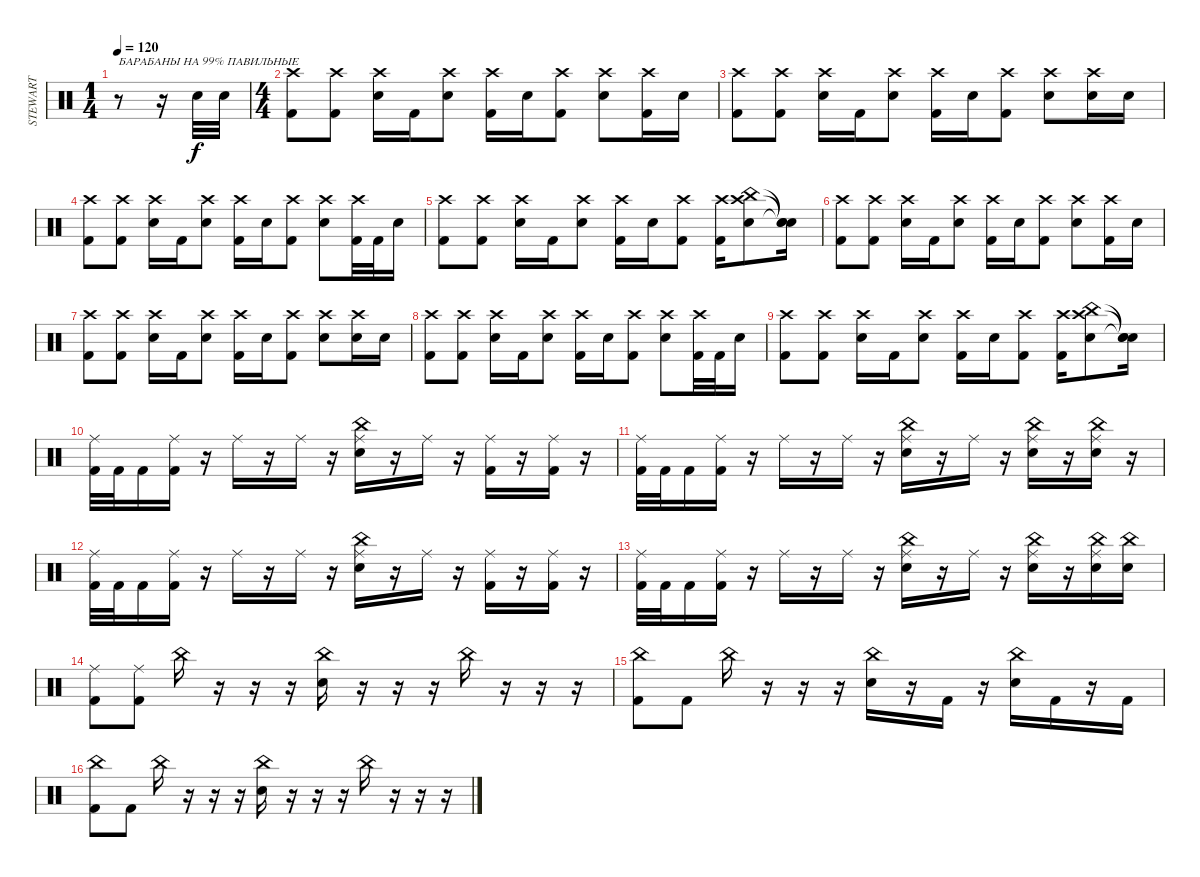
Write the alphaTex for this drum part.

\track ("STEWART" "STEWART") {instrument percussion}
\staff {score}
\articulation defaults
\ts (1 4)
\tempo 120
\clef neutral
\ks c
r.8{txt "БАРАБАНЫ НА 99% ПАВИЛЬНЫЕ" dy f} r.16 "Snare (hit) 2".32 "Snare (hit) 2".32 |
\ts (4 4)
("Crash high (hit)" "Kick (hit) 2").8 ("Crash high (hit)" "Kick (hit) 2").8 ("Crash high (hit)" "Snare (hit) 2").16 "Kick (hit) 2".16 ("Crash high (hit)" "Snare (hit) 2").8 ("Crash high (hit)" "Kick (hit) 2").16 "Snare (hit) 2".16 ("Crash high (hit)" "Kick (hit) 2").8 ("Crash high (hit)" "Snare (hit) 2").8 ("Crash high (hit)" "Kick (hit) 2").16 "Snare (hit) 2".16 |
("Crash high (hit)" "Kick (hit) 2").8 ("Crash high (hit)" "Kick (hit) 2").8 ("Crash high (hit)" "Snare (hit) 2").16 "Kick (hit) 2".16 ("Crash high (hit)" "Snare (hit) 2").8 ("Crash high (hit)" "Kick (hit) 2").16 "Snare (hit) 2".16 ("Crash high (hit)" "Kick (hit) 2").8 ("Crash high (hit)" "Snare (hit) 2").8 ("Crash high (hit)" "Snare (hit) 2").16 "Snare (hit) 2".16 |
("Crash high (hit)" "Kick (hit) 2").8 ("Crash high (hit)" "Kick (hit) 2").8 ("Crash high (hit)" "Snare (hit) 2").16 "Kick (hit) 2".16 ("Crash high (hit)" "Snare (hit) 2").8 ("Crash high (hit)" "Kick (hit) 2").16 "Snare (hit) 2".16 ("Crash high (hit)" "Kick (hit) 2").8 ("Crash high (hit)" "Snare (hit) 2").8 ("Crash high (hit)" "Kick (hit) 2").32 "Kick (hit) 2".32 "Snare (hit) 2".16 |
("Crash high (hit)" "Kick (hit) 2").8 ("Crash high (hit)" "Kick (hit) 2").8 ("Crash high (hit)" "Snare (hit) 2").16 "Kick (hit) 2".16 ("Crash high (hit)" "Snare (hit) 2").8 ("Crash high (hit)" "Kick (hit) 2").16 "Snare (hit) 2".16 ("Crash high (hit)" "Kick (hit) 2").8 ("Crash high (hit)" "Kick (hit) 2").16 ("China (hit)" "Crash high (hit)" "Snare (hit) 2").8 ("Snare (hit)"{t} "Snare (hit)"{t} "Snare (hit)"{t}).16 |
("Crash high (hit)" "Kick (hit) 2").8 ("Crash high (hit)" "Kick (hit) 2").8 ("Crash high (hit)" "Snare (hit) 2").16 "Kick (hit) 2".16 ("Crash high (hit)" "Snare (hit) 2").8 ("Crash high (hit)" "Kick (hit) 2").16 "Snare (hit) 2".16 ("Crash high (hit)" "Kick (hit) 2").8 ("Crash high (hit)" "Snare (hit) 2").8 ("Crash high (hit)" "Kick (hit) 2").16 "Snare (hit) 2".16 |
("Crash high (hit)" "Kick (hit) 2").8 ("Crash high (hit)" "Kick (hit) 2").8 ("Crash high (hit)" "Snare (hit) 2").16 "Kick (hit) 2".16 ("Crash high (hit)" "Snare (hit) 2").8 ("Crash high (hit)" "Kick (hit) 2").16 "Snare (hit) 2".16 ("Crash high (hit)" "Kick (hit) 2").8 ("Crash high (hit)" "Snare (hit) 2").8 ("Crash high (hit)" "Snare (hit) 2").16 "Snare (hit) 2".16 |
("Crash high (hit)" "Kick (hit) 2").8 ("Crash high (hit)" "Kick (hit) 2").8 ("Crash high (hit)" "Snare (hit) 2").16 "Kick (hit) 2".16 ("Crash high (hit)" "Snare (hit) 2").8 ("Crash high (hit)" "Kick (hit) 2").16 "Snare (hit) 2".16 ("Crash high (hit)" "Kick (hit) 2").8 ("Crash high (hit)" "Snare (hit) 2").8 ("Crash high (hit)" "Kick (hit) 2").32 "Kick (hit) 2".32 "Snare (hit) 2".16 |
("Crash high (hit)" "Kick (hit) 2").8 ("Crash high (hit)" "Kick (hit) 2").8 ("Crash high (hit)" "Snare (hit) 2").16 "Kick (hit) 2".16 ("Crash high (hit)" "Snare (hit) 2").8 ("Crash high (hit)" "Kick (hit) 2").16 "Snare (hit) 2".16 ("Crash high (hit)" "Kick (hit) 2").8 ("Crash high (hit)" "Kick (hit) 2").16 ("China (hit)" "Crash high (hit)" "Snare (hit) 2").8 ("Snare (hit)"{t} "Snare (hit)"{t} "Snare (hit)"{t}).16 |
("Ride (middle)" "Kick (hit) 2").32 "Kick (hit) 2".32 "Kick (hit) 2".16 ("Ride (middle)" "Kick (hit) 2").16 r.16 "Ride (middle)".16 r.16 "Ride (middle)".16 r.16 ("Ride (middle)" "China (hit)" "Snare (hit) 2").16 r.16 "Ride (middle)".16 r.16 ("Ride (middle)" "Kick (hit) 2").16 r.16 ("Ride (middle)" "Kick (hit) 2").16 r.16 |
("Ride (middle)" "Kick (hit) 2").32 "Kick (hit) 2".32 "Kick (hit) 2".16 ("Ride (middle)" "Kick (hit) 2").16 r.16 "Ride (middle)".16 r.16 "Ride (middle)".16 r.16 ("Ride (middle)" "China (hit)" "Snare (hit) 2").16 r.16 "Ride (middle)".16 r.16 ("Ride (middle)" "China (hit)" "Snare (hit) 2").16 r.16 ("Ride (middle)" "China (hit)" "Snare (hit) 2").16 r.16 |
("Ride (middle)" "Kick (hit) 2").32 "Kick (hit) 2".32 "Kick (hit) 2".16 ("Ride (middle)" "Kick (hit) 2").16 r.16 "Ride (middle)".16 r.16 "Ride (middle)".16 r.16 ("Ride (middle)" "China (hit)" "Snare (hit) 2").16 r.16 "Ride (middle)".16 r.16 ("Ride (middle)" "Kick (hit) 2").16 r.16 ("Ride (middle)" "Kick (hit) 2").16 r.16 |
("Ride (middle)" "Kick (hit) 2").32 "Kick (hit) 2".32 "Kick (hit) 2".16 ("Ride (middle)" "Kick (hit) 2").16 r.16 "Ride (middle)".16 r.16 "Ride (middle)".16 r.16 ("Ride (middle)" "China (hit)" "Snare (hit) 2").16 r.16 "Ride (middle)".16 r.16 ("Ride (middle)" "China (hit)" "Snare (hit) 2").16 r.16 ("Ride (middle)" "China (hit)" "Snare (hit) 2").16 ("China (hit)" "Snare (hit) 2").16 |
("Ride (middle)" "Kick (hit) 2").8 ("Ride (middle)" "Kick (hit) 2").8 "China (hit)".16 r.16 r.16 r.16 ("China (hit)" "Snare (hit) 2").16 r.16 r.16 r.16 "China (hit)".16 r.16 r.16 r.16 |
("China (hit)" "Kick (hit) 2").8 "Kick (hit) 2".8 "China (hit)".16 r.16 r.16 r.16 ("China (hit)" "Snare (hit) 2").16 r.16 "Kick (hit) 2".16 r.16 ("China (hit)" "Snare (hit) 2").16 "Kick (hit) 2".16 r.16 "Kick (hit) 2".16 |
("China (hit)" "Kick (hit) 2").8 "Kick (hit) 2".8 "China (hit)".16 r.16 r.16 r.16 ("China (hit)" "Snare (hit) 2").16 r.16 r.16 r.16 "China (hit)".16 r.16 r.16 r.16
